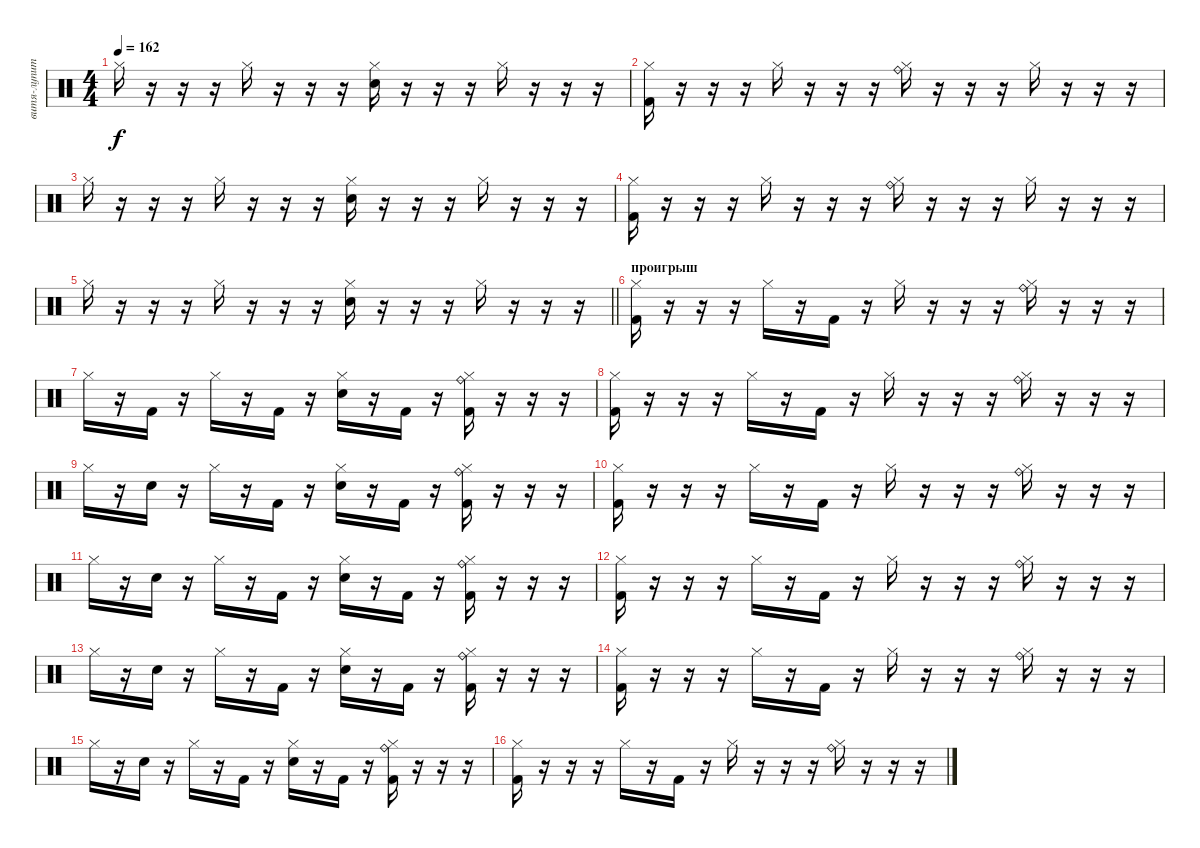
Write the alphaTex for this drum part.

\track ("витя-лупит" "витя-лупит") {instrument percussion}
\staff {score}
\articulation defaults
\ts (4 4)
\tempo 162
\clef neutral
\ks c "Hi-Hat (closed)".16{dy f}
r.16 r.16 r.16 "Hi-Hat (closed)".16 r.16 r.16 r.16 ("Snare (hit) 2" "Hi-Hat (closed)").16 r.16 r.16 r.16 "Hi-Hat (closed)".16 r.16 r.16 r.16 |
("Kick (hit) 2" "Hi-Hat (closed)").16 r.16 r.16 r.16 "Hi-Hat (closed)".16 r.16 r.16 r.16 ("Ride (bell)" "Hi-Hat (closed)").16 r.16 r.16 r.16 "Hi-Hat (closed)".16 r.16 r.16 r.16 |
"Hi-Hat (closed)".16 r.16 r.16 r.16 "Hi-Hat (closed)".16 r.16 r.16 r.16 ("Snare (hit) 2" "Hi-Hat (closed)").16 r.16 r.16 r.16 "Hi-Hat (closed)".16 r.16 r.16 r.16 |
("Kick (hit) 2" "Hi-Hat (closed)").16 r.16 r.16 r.16 "Hi-Hat (closed)".16 r.16 r.16 r.16 ("Ride (bell)" "Hi-Hat (closed)").16 r.16 r.16 r.16 "Hi-Hat (closed)".16 r.16 r.16 r.16 |
\barLineRight lightlight "Hi-Hat (closed)".16
r.16 r.16 r.16 "Hi-Hat (closed)".16 r.16 r.16 r.16 ("Snare (hit) 2" "Hi-Hat (closed)").16 r.16 r.16 r.16 "Hi-Hat (closed)".16 r.16 r.16 r.16 |
\section ("" "проигрыш")
("Kick (hit) 2" "Hi-Hat (closed)").16 r.16 r.16 r.16 "Hi-Hat (closed)".16 r.16 "Kick (hit) 2".16 r.16 "Hi-Hat (closed)".16 r.16 r.16 r.16 ("Ride (bell)" "Hi-Hat (closed)").16 r.16 r.16 r.16 |
"Hi-Hat (closed)".16 r.16 "Kick (hit) 2".16 r.16 "Hi-Hat (closed)".16 r.16 "Kick (hit) 2".16 r.16 ("Snare (hit) 2" "Hi-Hat (closed)").16 r.16 "Kick (hit) 2".16 r.16 ("Kick (hit) 2" "Ride (bell)" "Hi-Hat (closed)").16 r.16 r.16 r.16 |
("Kick (hit) 2" "Hi-Hat (closed)").16 r.16 r.16 r.16 "Hi-Hat (closed)".16 r.16 "Kick (hit) 2".16 r.16 "Hi-Hat (closed)".16 r.16 r.16 r.16 ("Ride (bell)" "Hi-Hat (closed)").16 r.16 r.16 r.16 |
"Hi-Hat (closed)".16 r.16 "Snare (hit) 2".16 r.16 "Hi-Hat (closed)".16 r.16 "Kick (hit) 2".16 r.16 ("Snare (hit) 2" "Hi-Hat (closed)").16 r.16 "Kick (hit) 2".16 r.16 ("Kick (hit) 2" "Ride (bell)" "Hi-Hat (closed)").16 r.16 r.16 r.16 |
("Kick (hit) 2" "Hi-Hat (closed)").16 r.16 r.16 r.16 "Hi-Hat (closed)".16 r.16 "Kick (hit) 2".16 r.16 "Hi-Hat (closed)".16 r.16 r.16 r.16 ("Ride (bell)" "Hi-Hat (closed)").16 r.16 r.16 r.16 |
"Hi-Hat (closed)".16 r.16 "Snare (hit) 2".16 r.16 "Hi-Hat (closed)".16 r.16 "Kick (hit) 2".16 r.16 ("Snare (hit) 2" "Hi-Hat (closed)").16 r.16 "Kick (hit) 2".16 r.16 ("Kick (hit) 2" "Ride (bell)" "Hi-Hat (closed)").16 r.16 r.16 r.16 |
("Kick (hit) 2" "Hi-Hat (closed)").16 r.16 r.16 r.16 "Hi-Hat (closed)".16 r.16 "Kick (hit) 2".16 r.16 "Hi-Hat (closed)".16 r.16 r.16 r.16 ("Ride (bell)" "Hi-Hat (closed)").16 r.16 r.16 r.16 |
"Hi-Hat (closed)".16 r.16 "Snare (hit) 2".16 r.16 "Hi-Hat (closed)".16 r.16 "Kick (hit) 2".16 r.16 ("Snare (hit) 2" "Hi-Hat (closed)").16 r.16 "Kick (hit) 2".16 r.16 ("Kick (hit) 2" "Ride (bell)" "Hi-Hat (closed)").16 r.16 r.16 r.16 |
("Kick (hit) 2" "Hi-Hat (closed)").16 r.16 r.16 r.16 "Hi-Hat (closed)".16 r.16 "Kick (hit) 2".16 r.16 "Hi-Hat (closed)".16 r.16 r.16 r.16 ("Ride (bell)" "Hi-Hat (closed)").16 r.16 r.16 r.16 |
"Hi-Hat (closed)".16 r.16 "Snare (hit) 2".16 r.16 "Hi-Hat (closed)".16 r.16 "Kick (hit) 2".16 r.16 ("Snare (hit) 2" "Hi-Hat (closed)").16 r.16 "Kick (hit) 2".16 r.16 ("Kick (hit) 2" "Ride (bell)" "Hi-Hat (closed)").16 r.16 r.16 r.16 |
("Kick (hit) 2" "Hi-Hat (closed)").16 r.16 r.16 r.16 "Hi-Hat (closed)".16 r.16 "Kick (hit) 2".16 r.16 "Hi-Hat (closed)".16 r.16 r.16 r.16 ("Ride (bell)" "Hi-Hat (closed)").16 r.16 r.16 r.16
